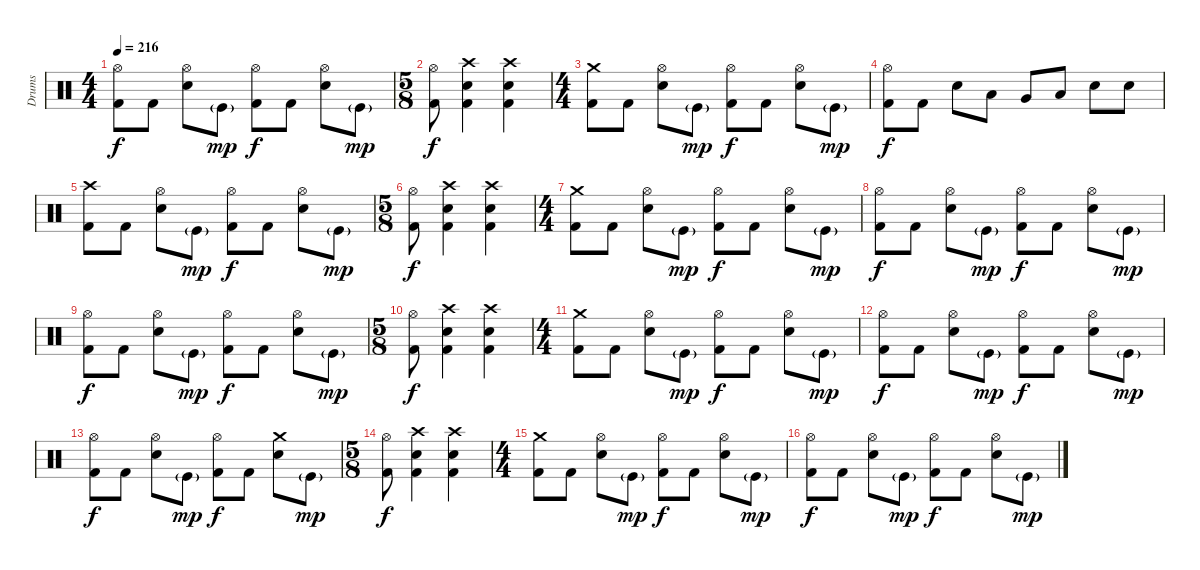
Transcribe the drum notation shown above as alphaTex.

\track ("Drums" "Drums") {instrument percussion}
\staff {score}
\articulation defaults
\ts (4 4)
\tempo 216
\clef neutral
\ks c
("Hi-Hat (open)" "Kick (hit) 2").8{dy f} "Kick (hit) 2".8 ("Hi-Hat (open)" "Snare (hit) 2").8 "Kick (hit)"{g}.8{dy mp} ("Hi-Hat (open)" "Kick (hit) 2").8{dy f} "Kick (hit) 2".8 ("Hi-Hat (open)" "Snare (hit) 2").8 "Kick (hit)"{g}.8{dy mp} |
\ts (5 8)
("Hi-Hat (open)" "Kick (hit) 2").8{dy f} ("Crash high (hit)" "Snare (hit) 2" "Kick (hit) 2").4 ("Crash high (hit)" "Snare (hit) 2" "Kick (hit) 2").4 |
\ts (4 4)
("Crash medium (hit)" "Kick (hit) 2").8 "Kick (hit) 2".8 ("Hi-Hat (open)" "Snare (hit) 2").8 "Kick (hit)"{g}.8{dy mp} ("Hi-Hat (open)" "Kick (hit) 2").8{dy f} "Kick (hit) 2".8 ("Hi-Hat (open)" "Snare (hit) 2").8 "Kick (hit)"{g}.8{dy mp} |
("Hi-Hat (open)" "Kick (hit) 2").8{dy f} "Kick (hit) 2".8 "Electric Snare (hit)".8 "Low Tom (hit)".8 "Very Low Tom (hit)".8 "Low Floor Tom (hit)".8 "Electric Snare (hit)".8 "Electric Snare (hit)".8 |
("Crash high (hit)" "Kick (hit) 2").8 "Kick (hit) 2".8 ("Hi-Hat (open)" "Snare (hit) 2").8 "Kick (hit)"{g}.8{dy mp} ("Hi-Hat (open)" "Kick (hit) 2").8{dy f} "Kick (hit) 2".8 ("Hi-Hat (open)" "Snare (hit) 2").8 "Kick (hit)"{g}.8{dy mp} |
\ts (5 8)
("Hi-Hat (open)" "Kick (hit) 2").8{dy f} ("Crash high (hit)" "Snare (hit) 2" "Kick (hit) 2").4 ("Crash high (hit)" "Snare (hit) 2" "Kick (hit) 2").4 |
\ts (4 4)
("Crash medium (hit)" "Kick (hit) 2").8 "Kick (hit) 2".8 ("Hi-Hat (open)" "Snare (hit) 2").8 "Kick (hit)"{g}.8{dy mp} ("Hi-Hat (open)" "Kick (hit) 2").8{dy f} "Kick (hit) 2".8 ("Hi-Hat (open)" "Snare (hit) 2").8 "Kick (hit)"{g}.8{dy mp} |
("Hi-Hat (open)" "Kick (hit) 2").8{dy f} "Kick (hit) 2".8 ("Hi-Hat (open)" "Snare (hit) 2").8 "Kick (hit)"{g}.8{dy mp} ("Hi-Hat (open)" "Kick (hit) 2").8{dy f} "Kick (hit) 2".8 ("Hi-Hat (open)" "Snare (hit) 2").8 "Kick (hit)"{g}.8{dy mp} |
("Hi-Hat (open)" "Kick (hit) 2").8{dy f} "Kick (hit) 2".8 ("Hi-Hat (open)" "Snare (hit) 2").8 "Kick (hit)"{g}.8{dy mp} ("Hi-Hat (open)" "Kick (hit) 2").8{dy f} "Kick (hit) 2".8 ("Hi-Hat (open)" "Snare (hit) 2").8 "Kick (hit)"{g}.8{dy mp} |
\ts (5 8)
("Hi-Hat (open)" "Kick (hit) 2").8{dy f} ("Crash high (hit)" "Snare (hit) 2" "Kick (hit) 2").4 ("Crash high (hit)" "Snare (hit) 2" "Kick (hit) 2").4 |
\ts (4 4)
("Crash medium (hit)" "Kick (hit) 2").8 "Kick (hit) 2".8 ("Hi-Hat (open)" "Snare (hit) 2").8 "Kick (hit)"{g}.8{dy mp} ("Hi-Hat (open)" "Kick (hit) 2").8{dy f} "Kick (hit) 2".8 ("Hi-Hat (open)" "Snare (hit) 2").8 "Kick (hit)"{g}.8{dy mp} |
("Hi-Hat (open)" "Kick (hit) 2").8{dy f} "Kick (hit) 2".8 ("Hi-Hat (open)" "Snare (hit) 2").8 "Kick (hit)"{g}.8{dy mp} ("Hi-Hat (open)" "Kick (hit) 2").8{dy f} "Kick (hit) 2".8 ("Hi-Hat (open)" "Snare (hit) 2").8 "Kick (hit)"{g}.8{dy mp} |
("Hi-Hat (open)" "Kick (hit) 2").8{dy f} "Kick (hit) 2".8 ("Hi-Hat (open)" "Snare (hit) 2").8 "Kick (hit)"{g}.8{dy mp} ("Hi-Hat (open)" "Kick (hit) 2").8{dy f} "Kick (hit) 2".8 ("Crash medium (hit)" "Snare (hit) 2").8 "Kick (hit)"{g}.8{dy mp} |
\ts (5 8)
("Hi-Hat (open)" "Kick (hit) 2").8{dy f} ("Crash high (hit)" "Snare (hit) 2" "Kick (hit) 2").4 ("Crash high (hit)" "Snare (hit) 2" "Kick (hit) 2").4 |
\ts (4 4)
("Crash medium (hit)" "Kick (hit) 2").8 "Kick (hit) 2".8 ("Hi-Hat (open)" "Snare (hit) 2").8 "Kick (hit)"{g}.8{dy mp} ("Hi-Hat (open)" "Kick (hit) 2").8{dy f} "Kick (hit) 2".8 ("Hi-Hat (open)" "Snare (hit) 2").8 "Kick (hit)"{g}.8{dy mp} |
("Hi-Hat (open)" "Kick (hit) 2").8{dy f} "Kick (hit) 2".8 ("Hi-Hat (open)" "Snare (hit) 2").8 "Kick (hit)"{g}.8{dy mp} ("Hi-Hat (open)" "Kick (hit) 2").8{dy f} "Kick (hit) 2".8 ("Hi-Hat (open)" "Snare (hit) 2").8 "Kick (hit)"{g}.8{dy mp}
